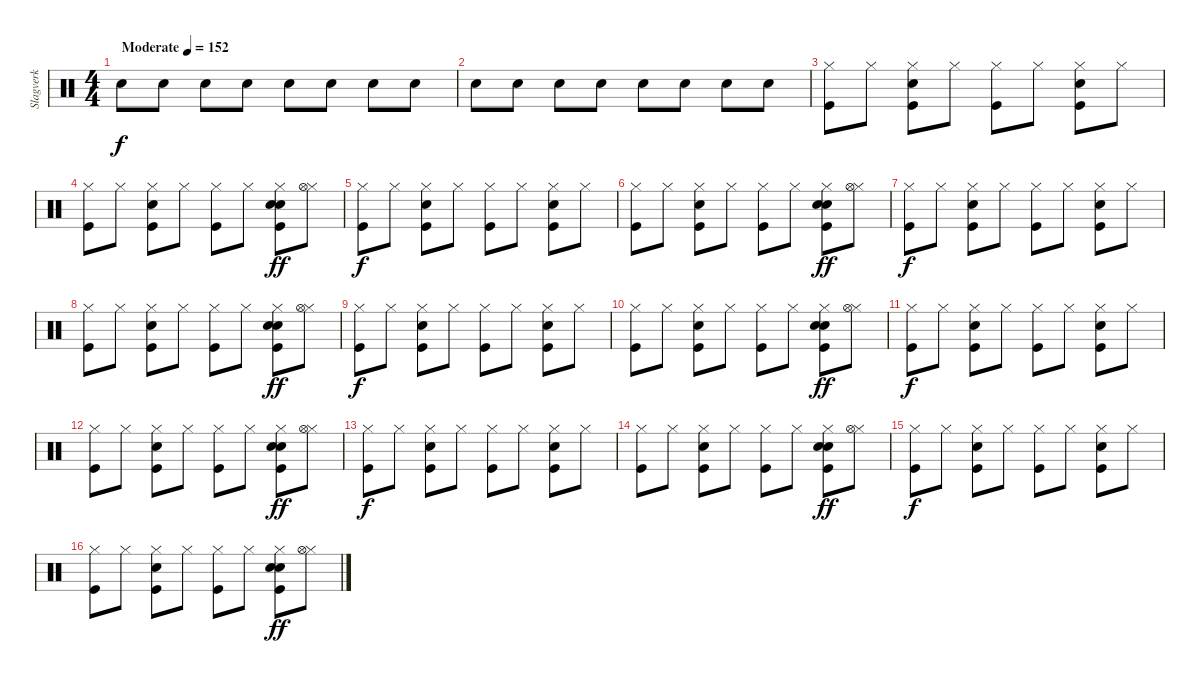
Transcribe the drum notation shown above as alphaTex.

\track ("Slagverk" "Slagverk") {instrument percussion}
\staff {score}
\articulation defaults
\ts (4 4)
\tempo (152 "Moderate")
\clef neutral
\ks c "Snare (hit) 2".8{dy f volume 2} "Snare (hit) 2".8{volume 6} "Snare (hit) 2".8 "Snare (hit) 2".8 "Snare (hit) 2".8 "Snare (hit) 2".8 "Snare (hit) 2".8 "Snare (hit) 2".8
|
"Snare (hit) 2".8 "Snare (hit) 2".8 "Snare (hit) 2".8 "Snare (hit) 2".8 "Snare (hit) 2".8 "Snare (hit) 2".8 "Snare (hit) 2".8 "Snare (hit) 2".8 |
("Kick (hit)" "Hi-Hat (closed)").8 "Hi-Hat (closed)".8 ("Kick (hit)" "Hi-Hat (closed)" "Snare (hit) 2").8 "Hi-Hat (closed)".8 ("Kick (hit)" "Hi-Hat (closed)").8 "Hi-Hat (closed)".8 ("Kick (hit)" "Hi-Hat (closed)" "Snare (hit) 2").8 "Hi-Hat (closed)".8 |
("Kick (hit)" "Hi-Hat (closed)").8 "Hi-Hat (closed)".8 ("Kick (hit)" "Hi-Hat (closed)" "Snare (hit) 2").8 "Hi-Hat (closed)".8 ("Kick (hit)" "Hi-Hat (closed)").8 "Hi-Hat (closed)".8 ("Kick (hit)" "Hi-Hat (closed)" "Electric Snare (hit)" "Snare (hit) 2").8{dy ff} ("Hi-Hat (closed)" "Hi-Hat (open)").8 |
("Kick (hit)" "Hi-Hat (closed)").8{dy f} "Hi-Hat (closed)".8 ("Kick (hit)" "Hi-Hat (closed)" "Snare (hit) 2").8 "Hi-Hat (closed)".8 ("Kick (hit)" "Hi-Hat (closed)").8 "Hi-Hat (closed)".8 ("Kick (hit)" "Hi-Hat (closed)" "Snare (hit) 2").8 "Hi-Hat (closed)".8 |
("Kick (hit)" "Hi-Hat (closed)").8 "Hi-Hat (closed)".8 ("Kick (hit)" "Hi-Hat (closed)" "Snare (hit) 2").8 "Hi-Hat (closed)".8 ("Kick (hit)" "Hi-Hat (closed)").8 "Hi-Hat (closed)".8 ("Kick (hit)" "Hi-Hat (closed)" "Electric Snare (hit)" "Snare (hit) 2").8{dy ff} ("Hi-Hat (closed)" "Hi-Hat (open)").8 |
("Kick (hit)" "Hi-Hat (closed)").8{dy f} "Hi-Hat (closed)".8 ("Kick (hit)" "Hi-Hat (closed)" "Snare (hit) 2").8 "Hi-Hat (closed)".8 ("Kick (hit)" "Hi-Hat (closed)").8 "Hi-Hat (closed)".8 ("Kick (hit)" "Hi-Hat (closed)" "Snare (hit) 2").8 "Hi-Hat (closed)".8 |
("Kick (hit)" "Hi-Hat (closed)").8 "Hi-Hat (closed)".8 ("Kick (hit)" "Hi-Hat (closed)" "Snare (hit) 2").8 "Hi-Hat (closed)".8 ("Kick (hit)" "Hi-Hat (closed)").8 "Hi-Hat (closed)".8 ("Kick (hit)" "Hi-Hat (closed)" "Electric Snare (hit)" "Snare (hit) 2").8{dy ff} ("Hi-Hat (closed)" "Hi-Hat (open)").8 |
("Kick (hit)" "Hi-Hat (closed)").8{dy f} "Hi-Hat (closed)".8 ("Kick (hit)" "Hi-Hat (closed)" "Snare (hit) 2").8 "Hi-Hat (closed)".8 ("Kick (hit)" "Hi-Hat (closed)").8 "Hi-Hat (closed)".8 ("Kick (hit)" "Hi-Hat (closed)" "Snare (hit) 2").8 "Hi-Hat (closed)".8 |
("Kick (hit)" "Hi-Hat (closed)").8 "Hi-Hat (closed)".8 ("Kick (hit)" "Hi-Hat (closed)" "Snare (hit) 2").8 "Hi-Hat (closed)".8 ("Kick (hit)" "Hi-Hat (closed)").8 "Hi-Hat (closed)".8 ("Kick (hit)" "Hi-Hat (closed)" "Electric Snare (hit)" "Snare (hit) 2").8{dy ff} ("Hi-Hat (closed)" "Hi-Hat (open)").8 |
("Kick (hit)" "Hi-Hat (closed)").8{dy f} "Hi-Hat (closed)".8 ("Kick (hit)" "Hi-Hat (closed)" "Snare (hit) 2").8 "Hi-Hat (closed)".8 ("Kick (hit)" "Hi-Hat (closed)").8 "Hi-Hat (closed)".8 ("Kick (hit)" "Hi-Hat (closed)" "Snare (hit) 2").8 "Hi-Hat (closed)".8 |
("Kick (hit)" "Hi-Hat (closed)").8 "Hi-Hat (closed)".8 ("Kick (hit)" "Hi-Hat (closed)" "Snare (hit) 2").8 "Hi-Hat (closed)".8 ("Kick (hit)" "Hi-Hat (closed)").8 "Hi-Hat (closed)".8 ("Kick (hit)" "Hi-Hat (closed)" "Electric Snare (hit)" "Snare (hit) 2").8{dy ff} ("Hi-Hat (closed)" "Hi-Hat (open)").8 |
("Kick (hit)" "Hi-Hat (closed)").8{dy f} "Hi-Hat (closed)".8 ("Kick (hit)" "Hi-Hat (closed)" "Snare (hit) 2").8 "Hi-Hat (closed)".8 ("Kick (hit)" "Hi-Hat (closed)").8 "Hi-Hat (closed)".8 ("Kick (hit)" "Hi-Hat (closed)" "Snare (hit) 2").8 "Hi-Hat (closed)".8 |
("Kick (hit)" "Hi-Hat (closed)").8 "Hi-Hat (closed)".8 ("Kick (hit)" "Hi-Hat (closed)" "Snare (hit) 2").8 "Hi-Hat (closed)".8 ("Kick (hit)" "Hi-Hat (closed)").8 "Hi-Hat (closed)".8 ("Kick (hit)" "Hi-Hat (closed)" "Electric Snare (hit)" "Snare (hit) 2").8{dy ff} ("Hi-Hat (closed)" "Hi-Hat (open)").8 |
("Kick (hit)" "Hi-Hat (closed)").8{dy f} "Hi-Hat (closed)".8 ("Kick (hit)" "Hi-Hat (closed)" "Snare (hit) 2").8 "Hi-Hat (closed)".8 ("Kick (hit)" "Hi-Hat (closed)").8 "Hi-Hat (closed)".8 ("Kick (hit)" "Hi-Hat (closed)" "Snare (hit) 2").8 "Hi-Hat (closed)".8 |
("Kick (hit)" "Hi-Hat (closed)").8 "Hi-Hat (closed)".8 ("Kick (hit)" "Hi-Hat (closed)" "Snare (hit) 2").8 "Hi-Hat (closed)".8 ("Kick (hit)" "Hi-Hat (closed)").8 "Hi-Hat (closed)".8 ("Kick (hit)" "Hi-Hat (closed)" "Electric Snare (hit)" "Snare (hit) 2").8{dy ff} ("Hi-Hat (closed)" "Hi-Hat (open)").8
